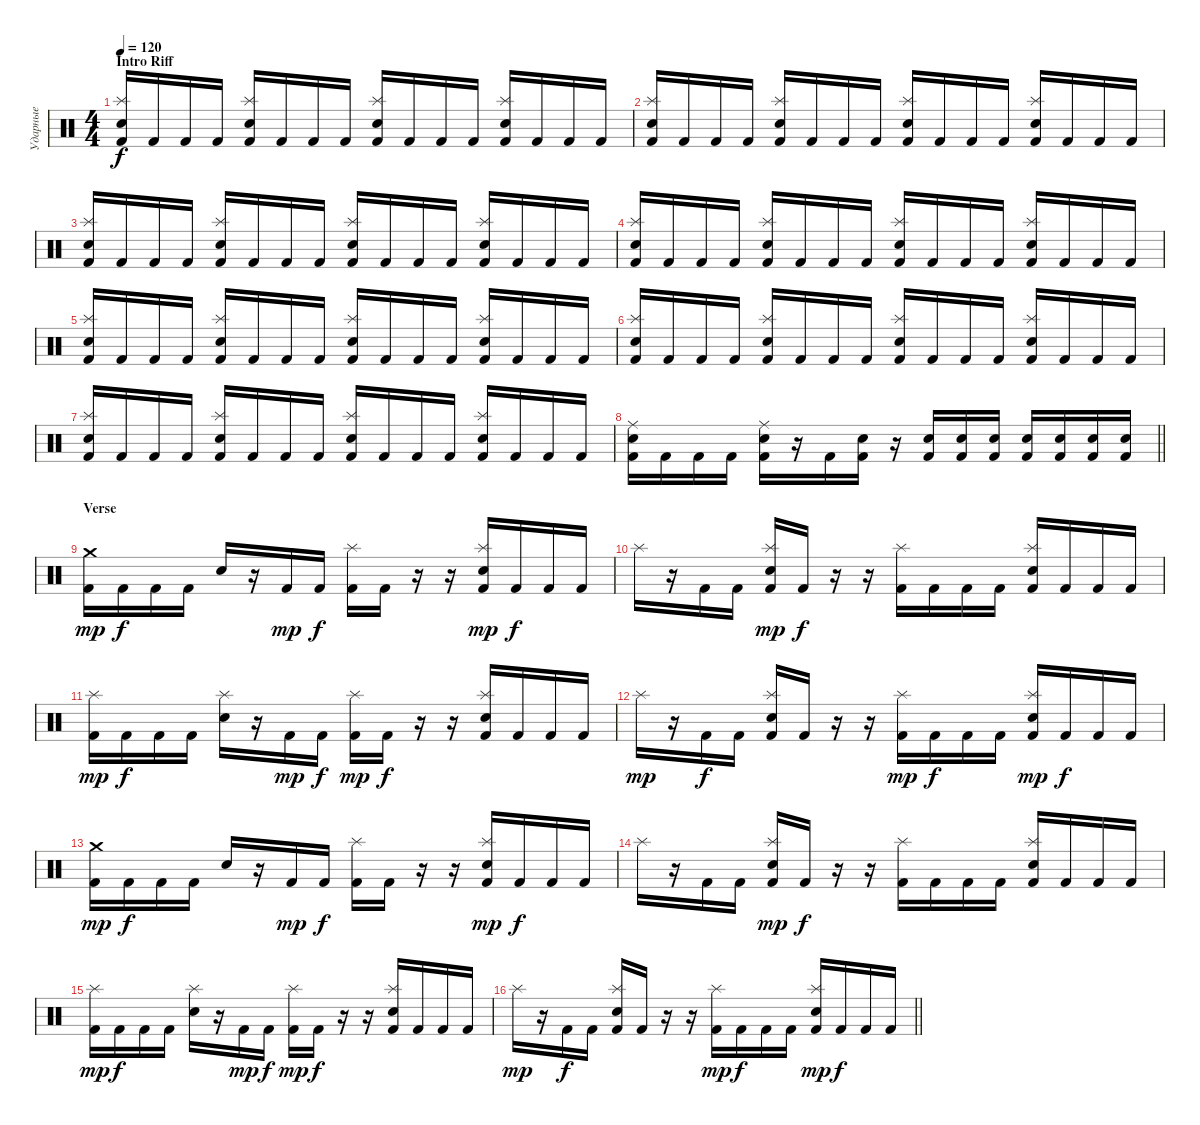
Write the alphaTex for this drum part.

\track ("Ударные" "Ударные") {instrument percussion}
\staff {score}
\articulation defaults
\ts (4 4)
\section ("" "Intro Riff")
\tempo 120
\clef neutral
\ks c
("Kick (hit) 2" "Splash (hit)" "Snare (hit) 2").16{dy f} "Kick (hit) 2".16 "Kick (hit) 2".16 "Kick (hit) 2".16 ("Kick (hit) 2" "Splash (hit)" "Snare (hit) 2").16 "Kick (hit) 2".16 "Kick (hit) 2".16 "Kick (hit) 2".16 ("Kick (hit) 2" "Splash (hit)" "Snare (hit) 2").16 "Kick (hit) 2".16 "Kick (hit) 2".16 "Kick (hit) 2".16 ("Kick (hit) 2" "Splash (hit)" "Snare (hit) 2").16 "Kick (hit) 2".16 "Kick (hit) 2".16 "Kick (hit) 2".16 |
("Kick (hit) 2" "Splash (hit)" "Snare (hit) 2").16 "Kick (hit) 2".16 "Kick (hit) 2".16 "Kick (hit) 2".16 ("Kick (hit) 2" "Splash (hit)" "Snare (hit) 2").16 "Kick (hit) 2".16 "Kick (hit) 2".16 "Kick (hit) 2".16 ("Kick (hit) 2" "Splash (hit)" "Snare (hit) 2").16 "Kick (hit) 2".16 "Kick (hit) 2".16 "Kick (hit) 2".16 ("Kick (hit) 2" "Splash (hit)" "Snare (hit) 2").16 "Kick (hit) 2".16 "Kick (hit) 2".16 "Kick (hit) 2".16 |
("Kick (hit) 2" "Splash (hit)" "Snare (hit) 2").16 "Kick (hit) 2".16 "Kick (hit) 2".16 "Kick (hit) 2".16 ("Kick (hit) 2" "Splash (hit)" "Snare (hit) 2").16 "Kick (hit) 2".16 "Kick (hit) 2".16 "Kick (hit) 2".16 ("Kick (hit) 2" "Splash (hit)" "Snare (hit) 2").16 "Kick (hit) 2".16 "Kick (hit) 2".16 "Kick (hit) 2".16 ("Kick (hit) 2" "Splash (hit)" "Snare (hit) 2").16 "Kick (hit) 2".16 "Kick (hit) 2".16 "Kick (hit) 2".16 |
("Kick (hit) 2" "Splash (hit)" "Snare (hit) 2").16 "Kick (hit) 2".16 "Kick (hit) 2".16 "Kick (hit) 2".16 ("Kick (hit) 2" "Splash (hit)" "Snare (hit) 2").16 "Kick (hit) 2".16 "Kick (hit) 2".16 "Kick (hit) 2".16 ("Kick (hit) 2" "Splash (hit)" "Snare (hit) 2").16 "Kick (hit) 2".16 "Kick (hit) 2".16 "Kick (hit) 2".16 ("Kick (hit) 2" "Splash (hit)" "Snare (hit) 2").16 "Kick (hit) 2".16 "Kick (hit) 2".16 "Kick (hit) 2".16 |
("Kick (hit) 2" "Splash (hit)" "Snare (hit) 2").16 "Kick (hit) 2".16 "Kick (hit) 2".16 "Kick (hit) 2".16 ("Kick (hit) 2" "Splash (hit)" "Snare (hit) 2").16 "Kick (hit) 2".16 "Kick (hit) 2".16 "Kick (hit) 2".16 ("Kick (hit) 2" "Splash (hit)" "Snare (hit) 2").16 "Kick (hit) 2".16 "Kick (hit) 2".16 "Kick (hit) 2".16 ("Kick (hit) 2" "Splash (hit)" "Snare (hit) 2").16 "Kick (hit) 2".16 "Kick (hit) 2".16 "Kick (hit) 2".16 |
("Kick (hit) 2" "Splash (hit)" "Snare (hit) 2").16 "Kick (hit) 2".16 "Kick (hit) 2".16 "Kick (hit) 2".16 ("Kick (hit) 2" "Splash (hit)" "Snare (hit) 2").16 "Kick (hit) 2".16 "Kick (hit) 2".16 "Kick (hit) 2".16 ("Kick (hit) 2" "Splash (hit)" "Snare (hit) 2").16 "Kick (hit) 2".16 "Kick (hit) 2".16 "Kick (hit) 2".16 ("Kick (hit) 2" "Splash (hit)" "Snare (hit) 2").16 "Kick (hit) 2".16 "Kick (hit) 2".16 "Kick (hit) 2".16 |
("Kick (hit) 2" "Splash (hit)" "Snare (hit) 2").16 "Kick (hit) 2".16 "Kick (hit) 2".16 "Kick (hit) 2".16 ("Kick (hit) 2" "Splash (hit)" "Snare (hit) 2").16 "Kick (hit) 2".16 "Kick (hit) 2".16 "Kick (hit) 2".16 ("Kick (hit) 2" "Splash (hit)" "Snare (hit) 2").16 "Kick (hit) 2".16 "Kick (hit) 2".16 "Kick (hit) 2".16 ("Kick (hit) 2" "Splash (hit)" "Snare (hit) 2").16 "Kick (hit) 2".16 "Kick (hit) 2".16 "Kick (hit) 2".16 |
\barLineRight lightlight
("Kick (hit) 2" "Ride (middle)" "Snare (hit) 2").16 "Kick (hit) 2".16 "Kick (hit) 2".16 "Kick (hit) 2".16 ("Kick (hit) 2" "Ride (middle)" "Snare (hit) 2").16 r.16 "Kick (hit) 2".16 ("Kick (hit) 2" "Snare (hit) 2").16 r.16 ("Kick (hit) 2" "Snare (hit) 2").16 ("Kick (hit) 2" "Snare (hit) 2").16 ("Kick (hit) 2" "Snare (hit) 2").16 ("Kick (hit) 2" "Snare (hit) 2").16 ("Kick (hit) 2" "Snare (hit) 2").16 ("Kick (hit) 2" "Snare (hit) 2").16 ("Kick (hit) 2" "Snare (hit) 2").16 |
\section ("" "Verse")
("Kick (hit) 2" "Crash medium (hit)").16{dy mp} "Kick (hit) 2".16{dy f} "Kick (hit) 2".16 "Kick (hit) 2".16 "Snare (hit) 2".16 r.16 "Kick (hit) 2".16{dy mp} "Kick (hit) 2".16{dy f} ("Kick (hit) 2" "Splash (hit)").16 "Kick (hit) 2".16 r.16 r.16 ("Kick (hit) 2" "Splash (hit)" "Snare (hit) 2").16{dy mp} "Kick (hit) 2".16{dy f} "Kick (hit) 2".16 "Kick (hit) 2".16 |
"Splash (hit)".16 r.16 "Kick (hit) 2".16 "Kick (hit) 2".16 ("Kick (hit) 2" "Splash (hit)" "Snare (hit) 2").16{dy mp} "Kick (hit) 2".16{dy f} r.16 r.16 ("Kick (hit) 2" "Splash (hit)").16 "Kick (hit) 2".16 "Kick (hit) 2".16 "Kick (hit) 2".16 ("Kick (hit) 2" "Splash (hit)" "Snare (hit) 2").16 "Kick (hit) 2".16 "Kick (hit) 2".16 "Kick (hit) 2".16 |
("Kick (hit) 2" "Splash (hit)").16{dy mp} "Kick (hit) 2".16{dy f} "Kick (hit) 2".16 "Kick (hit) 2".16 ("Splash (hit)" "Snare (hit) 2").16 r.16 "Kick (hit) 2".16{dy mp} "Kick (hit) 2".16{dy f} ("Kick (hit) 2" "Splash (hit)").16{dy mp} "Kick (hit) 2".16{dy f} r.16 r.16 ("Kick (hit) 2" "Splash (hit)" "Snare (hit) 2").16 "Kick (hit) 2".16 "Kick (hit) 2".16 "Kick (hit) 2".16 |
"Splash (hit)".16{dy mp} r.16 "Kick (hit) 2".16{dy f} "Kick (hit) 2".16 ("Kick (hit) 2" "Splash (hit)" "Snare (hit) 2").16 "Kick (hit) 2".16 r.16 r.16 ("Kick (hit) 2" "Splash (hit)").16{dy mp} "Kick (hit) 2".16{dy f} "Kick (hit) 2".16 "Kick (hit) 2".16 ("Kick (hit) 2" "Splash (hit)" "Snare (hit) 2").16{dy mp} "Kick (hit) 2".16{dy f} "Kick (hit) 2".16 "Kick (hit) 2".16 |
("Kick (hit) 2" "Crash medium (hit)").16{dy mp} "Kick (hit) 2".16{dy f} "Kick (hit) 2".16 "Kick (hit) 2".16 "Snare (hit) 2".16 r.16 "Kick (hit) 2".16{dy mp} "Kick (hit) 2".16{dy f} ("Kick (hit) 2" "Splash (hit)").16 "Kick (hit) 2".16 r.16 r.16 ("Kick (hit) 2" "Splash (hit)" "Snare (hit) 2").16{dy mp} "Kick (hit) 2".16{dy f} "Kick (hit) 2".16 "Kick (hit) 2".16 |
"Splash (hit)".16 r.16 "Kick (hit) 2".16 "Kick (hit) 2".16 ("Kick (hit) 2" "Splash (hit)" "Snare (hit) 2").16{dy mp} "Kick (hit) 2".16{dy f} r.16 r.16 ("Kick (hit) 2" "Splash (hit)").16 "Kick (hit) 2".16 "Kick (hit) 2".16 "Kick (hit) 2".16 ("Kick (hit) 2" "Splash (hit)" "Snare (hit) 2").16 "Kick (hit) 2".16 "Kick (hit) 2".16 "Kick (hit) 2".16 |
("Kick (hit) 2" "Splash (hit)").16{dy mp} "Kick (hit) 2".16{dy f} "Kick (hit) 2".16 "Kick (hit) 2".16 ("Splash (hit)" "Snare (hit) 2").16 r.16 "Kick (hit) 2".16{dy mp} "Kick (hit) 2".16{dy f} ("Kick (hit) 2" "Splash (hit)").16{dy mp} "Kick (hit) 2".16{dy f} r.16 r.16 ("Kick (hit) 2" "Splash (hit)" "Snare (hit) 2").16 "Kick (hit) 2".16 "Kick (hit) 2".16 "Kick (hit) 2".16 |
\barLineRight lightlight "Splash (hit)".16{dy mp}
r.16 "Kick (hit) 2".16{dy f} "Kick (hit) 2".16 ("Kick (hit) 2" "Splash (hit)" "Snare (hit) 2").16 "Kick (hit) 2".16 r.16 r.16 ("Kick (hit) 2" "Splash (hit)").16{dy mp} "Kick (hit) 2".16{dy f} "Kick (hit) 2".16 "Kick (hit) 2".16 ("Kick (hit) 2" "Splash (hit)" "Snare (hit) 2").16{dy mp} "Kick (hit) 2".16{dy f} "Kick (hit) 2".16 "Kick (hit) 2".16
